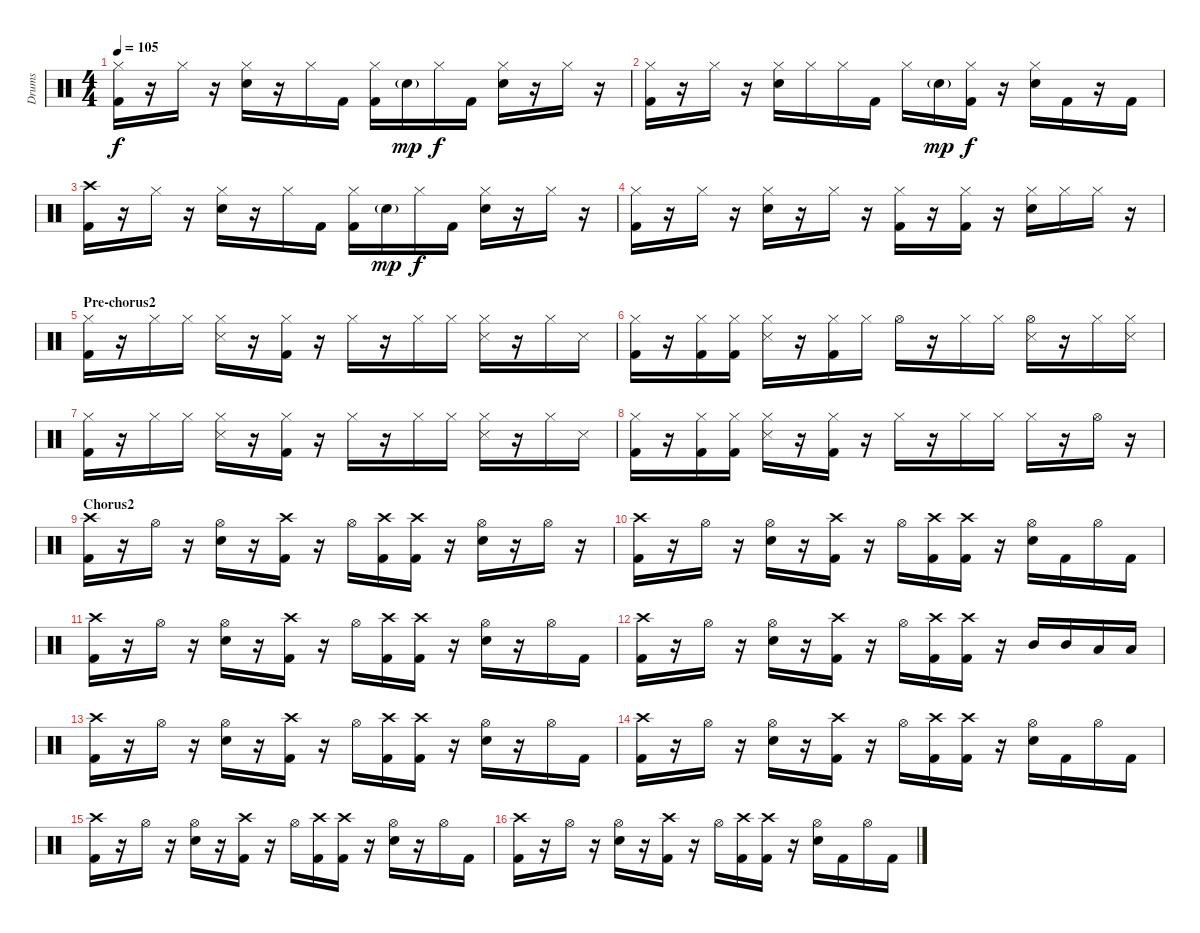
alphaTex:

\track ("Drums" "Drums") {instrument percussion}
\staff {score}
\articulation defaults
\ts (4 4)
\tempo 105
\clef neutral
\ks c
("Hi-Hat (closed)" "Kick (hit) 2").16{dy f} r.16 "Hi-Hat (closed)".16 r.16 ("Hi-Hat (closed)" "Snare (hit) 2").16 r.16 "Hi-Hat (closed)".16 "Kick (hit) 2".16 ("Hi-Hat (closed)" "Kick (hit) 2").16 "Snare (hit) 2"{g}.16{dy mp} "Hi-Hat (closed)".16{dy f} "Kick (hit) 2".16 ("Hi-Hat (closed)" "Snare (hit) 2").16 r.16 "Hi-Hat (closed)".16 r.16 |
("Hi-Hat (closed)" "Kick (hit) 2").16 r.16 "Hi-Hat (closed)".16 r.16 ("Hi-Hat (closed)" "Snare (hit) 2").16 "Hi-Hat (closed)".16 "Hi-Hat (closed)".16 "Kick (hit) 2".16 "Hi-Hat (closed)".16 "Snare (hit) 2"{g}.16{dy mp} ("Hi-Hat (closed)" "Kick (hit) 2").16{dy f} r.16 ("Hi-Hat (closed)" "Snare (hit) 2").16 "Kick (hit) 2".16 r.16 "Kick (hit) 2".16 |
("Crash high (hit)" "Kick (hit) 2").16 r.16 "Hi-Hat (closed)".16 r.16 ("Hi-Hat (closed)" "Snare (hit) 2").16 r.16 "Hi-Hat (closed)".16 "Kick (hit) 2".16 ("Hi-Hat (closed)" "Kick (hit) 2").16 "Snare (hit) 2"{g}.16{dy mp} "Hi-Hat (closed)".16{dy f} "Kick (hit) 2".16 ("Hi-Hat (closed)" "Snare (hit) 2").16 r.16 "Hi-Hat (closed)".16 r.16 |
("Hi-Hat (closed)" "Kick (hit) 2").16 r.16 "Hi-Hat (closed)".16 r.16 ("Hi-Hat (closed)" "Snare (hit) 2").16 r.16 "Hi-Hat (closed)".16 r.16 ("Hi-Hat (closed)" "Kick (hit) 2").16 r.16 ("Hi-Hat (closed)" "Kick (hit) 2").16 r.16 ("Hi-Hat (closed)" "Snare (hit) 2").16 "Hi-Hat (closed)".16 "Hi-Hat (closed)".16 r.16 |
\section ("" "Pre-chorus2")
("Hi-Hat (closed)" "Kick (hit) 2").16 r.16 "Hi-Hat (closed)".16 "Hi-Hat (closed)".16 ("Hi-Hat (closed)" "Snare (side stick) 3").16 r.16 ("Hi-Hat (closed)" "Kick (hit) 2").16 r.16 "Hi-Hat (closed)".16 r.16 "Hi-Hat (closed)".16 "Hi-Hat (closed)".16 ("Hi-Hat (closed)" "Snare (side stick) 3").16 r.16 "Hi-Hat (closed)".16 "Snare (side stick) 3".16 |
("Hi-Hat (closed)" "Kick (hit) 2").16 r.16 ("Hi-Hat (closed)" "Kick (hit) 2").16 ("Hi-Hat (closed)" "Kick (hit) 2").16 ("Hi-Hat (closed)" "Snare (side stick) 3").16 r.16 ("Hi-Hat (closed)" "Kick (hit) 2").16 "Hi-Hat (closed)".16 "Hi-Hat (open)".16 r.16 "Hi-Hat (closed)".16 "Hi-Hat (closed)".16 ("Hi-Hat (open)" "Snare (side stick) 3").16 r.16 "Hi-Hat (closed)".16 ("Hi-Hat (closed)" "Snare (side stick) 3").16 |
("Hi-Hat (closed)" "Kick (hit) 2").16 r.16 "Hi-Hat (closed)".16 "Hi-Hat (closed)".16 ("Hi-Hat (closed)" "Snare (side stick) 3").16 r.16 ("Hi-Hat (closed)" "Kick (hit) 2").16 r.16 "Hi-Hat (closed)".16 r.16 "Hi-Hat (closed)".16 "Hi-Hat (closed)".16 ("Hi-Hat (closed)" "Snare (side stick) 3").16 r.16 "Hi-Hat (closed)".16 "Snare (side stick) 3".16 |
("Hi-Hat (closed)" "Kick (hit) 2").16 r.16 ("Hi-Hat (closed)" "Kick (hit) 2").16 ("Hi-Hat (closed)" "Kick (hit) 2").16 ("Hi-Hat (closed)" "Snare (side stick) 3").16 r.16 ("Hi-Hat (closed)" "Kick (hit) 2").16 r.16 "Hi-Hat (closed)".16 r.16 "Hi-Hat (closed)".16 "Hi-Hat (closed)".16 "Hi-Hat (closed)".16 r.16 "Hi-Hat (open)".16 r.16 |
\section ("" "Chorus2")
("Crash high (hit)" "Kick (hit) 2").16 r.16 "Hi-Hat (open)".16 r.16 ("Hi-Hat (open)" "Snare (hit) 2").16 r.16 ("Crash high (hit)" "Kick (hit) 2").16 r.16 "Hi-Hat (open)".16 ("Crash high (hit)" "Kick (hit) 2").16 ("Crash high (hit)" "Kick (hit) 2").16 r.16 ("Hi-Hat (open)" "Snare (hit) 2").16 r.16 "Hi-Hat (open)".16 r.16 |
("Crash high (hit)" "Kick (hit) 2").16 r.16 "Hi-Hat (open)".16 r.16 ("Hi-Hat (open)" "Snare (hit) 2").16 r.16 ("Crash high (hit)" "Kick (hit) 2").16 r.16 "Hi-Hat (open)".16 ("Crash high (hit)" "Kick (hit) 2").16 ("Crash high (hit)" "Kick (hit) 2").16 r.16 ("Hi-Hat (open)" "Snare (hit) 2").16 "Kick (hit) 2".16 "Hi-Hat (open)".16 "Kick (hit) 2".16 |
("Crash high (hit)" "Kick (hit) 2").16 r.16 "Hi-Hat (open)".16 r.16 ("Hi-Hat (open)" "Snare (hit) 2").16 r.16 ("Crash high (hit)" "Kick (hit) 2").16 r.16 "Hi-Hat (open)".16 ("Crash high (hit)" "Kick (hit) 2").16 ("Crash high (hit)" "Kick (hit) 2").16 r.16 ("Hi-Hat (open)" "Snare (hit) 2").16 r.16 "Hi-Hat (open)".16 "Kick (hit) 2".16 |
("Crash high (hit)" "Kick (hit) 2").16 r.16 "Hi-Hat (open)".16 r.16 ("Hi-Hat (open)" "Snare (hit) 2").16 r.16 ("Crash high (hit)" "Kick (hit) 2").16 r.16 "Hi-Hat (open)".16 ("Crash high (hit)" "Kick (hit) 2").16 ("Crash high (hit)" "Kick (hit) 2").16 r.16 "Mid Tom (hit)".16 "Mid Tom (hit)".16 "Low Tom (hit)".16 "Low Tom (hit)".16 |
("Crash high (hit)" "Kick (hit) 2").16 r.16 "Hi-Hat (open)".16 r.16 ("Hi-Hat (open)" "Snare (hit) 2").16 r.16 ("Crash high (hit)" "Kick (hit) 2").16 r.16 "Hi-Hat (open)".16 ("Crash high (hit)" "Kick (hit) 2").16 ("Crash high (hit)" "Kick (hit) 2").16 r.16 ("Hi-Hat (open)" "Snare (hit) 2").16 r.16 "Hi-Hat (open)".16 "Kick (hit) 2".16 |
("Crash high (hit)" "Kick (hit) 2").16 r.16 "Hi-Hat (open)".16 r.16 ("Hi-Hat (open)" "Snare (hit) 2").16 r.16 ("Crash high (hit)" "Kick (hit) 2").16 r.16 "Hi-Hat (open)".16 ("Crash high (hit)" "Kick (hit) 2").16 ("Crash high (hit)" "Kick (hit) 2").16 r.16 ("Hi-Hat (open)" "Snare (hit) 2").16 "Kick (hit) 2".16 "Hi-Hat (open)".16 "Kick (hit) 2".16 |
("Crash high (hit)" "Kick (hit) 2").16 r.16 "Hi-Hat (open)".16 r.16 ("Hi-Hat (open)" "Snare (hit) 2").16 r.16 ("Crash high (hit)" "Kick (hit) 2").16 r.16 "Hi-Hat (open)".16 ("Crash high (hit)" "Kick (hit) 2").16 ("Crash high (hit)" "Kick (hit) 2").16 r.16 ("Hi-Hat (open)" "Snare (hit) 2").16 r.16 "Hi-Hat (open)".16 "Kick (hit) 2".16 |
("Crash high (hit)" "Kick (hit) 2").16 r.16 "Hi-Hat (open)".16 r.16 ("Hi-Hat (open)" "Snare (hit) 2").16 r.16 ("Crash high (hit)" "Kick (hit) 2").16 r.16 "Hi-Hat (open)".16 ("Crash high (hit)" "Kick (hit) 2").16 ("Crash high (hit)" "Kick (hit) 2").16 r.16 ("Hi-Hat (open)" "Snare (hit) 2").16 "Kick (hit) 2".16 "Hi-Hat (open)".16 "Kick (hit) 2".16
